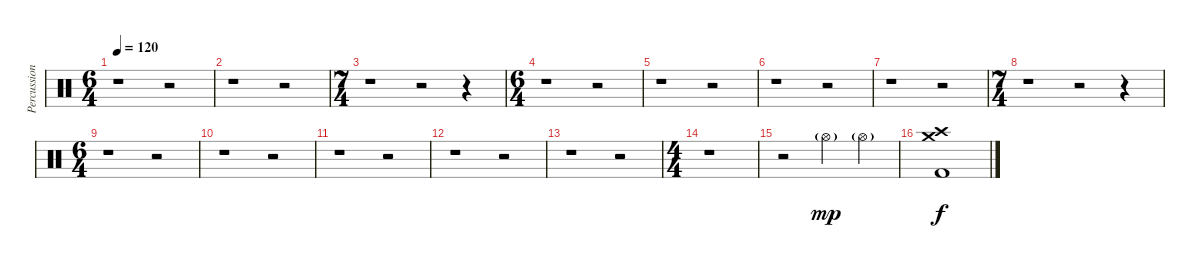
\track ("Percussioni" "Percussion") {instrument percussion}
\staff {score}
\articulation defaults
\ts (6 4)
\tempo 120
\clef neutral
\ks c
r.1{dy f} r.2 |
r.1 r.2 |
\ts (7 4)
r.1 r.2 r.4 |
\ts (6 4)
r.1 r.2 |
r.1 r.2 |
r.1 r.2 |
r.1 r.2 |
\ts (7 4)
r.1 r.2 r.4 |
\ts (6 4)
r.1 r.2 |
r.1 r.2 |
r.1 r.2 |
r.1 r.2 |
r.1 r.2 |
\ts (4 4)
r.1 |
r.2 "Hi-Hat (open)"{g}.4{dy mp} "Hi-Hat (open)"{g}.4 |
("Crash medium (hit)" "Crash high (hit)" "Kick (hit) 2").1{dy f}
